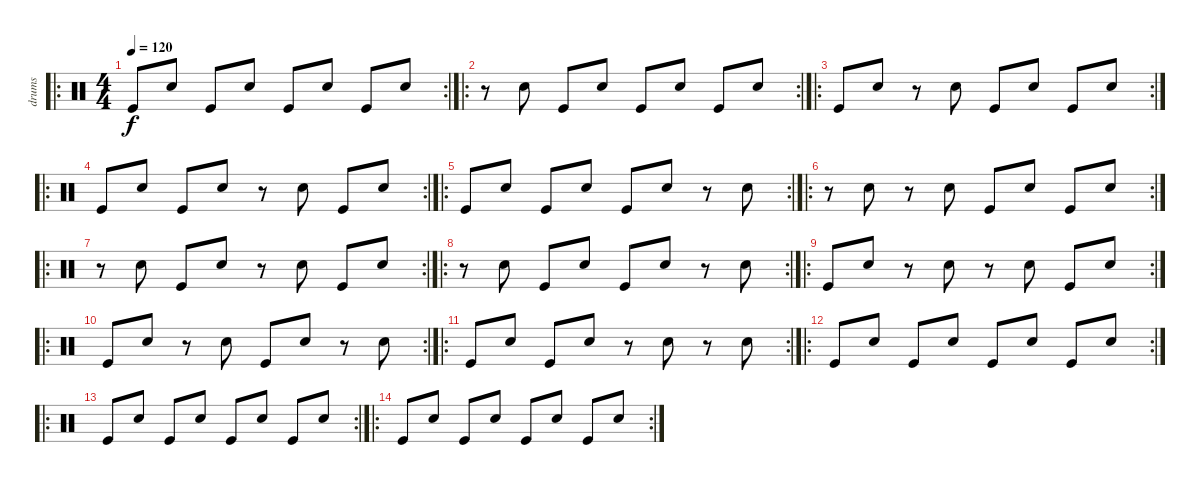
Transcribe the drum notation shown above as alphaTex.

\track ("drums" "drums") {instrument percussion}
\staff {score}
\articulation defaults
\ro
\rc 2
\ts (4 4)
\tempo 120
\clef neutral
\ks c "Kick (hit)".8{dy f} "Electric Snare (hit)".8 "Kick (hit)".8 "Electric Snare (hit)".8 "Kick (hit)".8 "Electric Snare (hit)".8 "Kick (hit)".8 "Electric Snare (hit)".8
|
\ro
\rc 2
r.8 "Electric Snare (hit)".8 "Kick (hit)".8 "Electric Snare (hit)".8 "Kick (hit)".8 "Electric Snare (hit)".8 "Kick (hit)".8 "Electric Snare (hit)".8 |
\ro
\rc 2 "Kick (hit)".8 "Electric Snare (hit)".8
r.8 "Electric Snare (hit)".8 "Kick (hit)".8 "Electric Snare (hit)".8 "Kick (hit)".8 "Electric Snare (hit)".8 |
\ro
\rc 2 "Kick (hit)".8 "Electric Snare (hit)".8 "Kick (hit)".8 "Electric Snare (hit)".8
r.8 "Electric Snare (hit)".8 "Kick (hit)".8 "Electric Snare (hit)".8 |
\ro
\rc 2 "Kick (hit)".8 "Electric Snare (hit)".8 "Kick (hit)".8 "Electric Snare (hit)".8 "Kick (hit)".8 "Electric Snare (hit)".8
r.8 "Electric Snare (hit)".8 |
\ro
\rc 2
r.8 "Electric Snare (hit)".8 r.8 "Electric Snare (hit)".8 "Kick (hit)".8 "Electric Snare (hit)".8 "Kick (hit)".8 "Electric Snare (hit)".8 |
\ro
\rc 2
r.8 "Electric Snare (hit)".8 "Kick (hit)".8 "Electric Snare (hit)".8 r.8 "Electric Snare (hit)".8 "Kick (hit)".8 "Electric Snare (hit)".8 |
\ro
\rc 2
r.8 "Electric Snare (hit)".8 "Kick (hit)".8 "Electric Snare (hit)".8 "Kick (hit)".8 "Electric Snare (hit)".8 r.8 "Electric Snare (hit)".8 |
\ro
\rc 2 "Kick (hit)".8 "Electric Snare (hit)".8
r.8 "Electric Snare (hit)".8 r.8 "Electric Snare (hit)".8 "Kick (hit)".8 "Electric Snare (hit)".8 |
\ro
\rc 2 "Kick (hit)".8 "Electric Snare (hit)".8
r.8 "Electric Snare (hit)".8 "Kick (hit)".8 "Electric Snare (hit)".8 r.8 "Electric Snare (hit)".8 |
\ro
\rc 2 "Kick (hit)".8 "Electric Snare (hit)".8 "Kick (hit)".8 "Electric Snare (hit)".8
r.8 "Electric Snare (hit)".8 r.8 "Electric Snare (hit)".8 |
\ro
\rc 2 "Kick (hit)".8 "Electric Snare (hit)".8 "Kick (hit)".8 "Electric Snare (hit)".8 "Kick (hit)".8 "Electric Snare (hit)".8 "Kick (hit)".8 "Electric Snare (hit)".8
|
\ro
\rc 2 "Kick (hit)".8 "Electric Snare (hit)".8 "Kick (hit)".8 "Electric Snare (hit)".8 "Kick (hit)".8 "Electric Snare (hit)".8 "Kick (hit)".8 "Electric Snare (hit)".8
|
\ro
\rc 2 "Kick (hit)".8 "Electric Snare (hit)".8 "Kick (hit)".8 "Electric Snare (hit)".8 "Kick (hit)".8 "Electric Snare (hit)".8 "Kick (hit)".8 "Electric Snare (hit)".8
